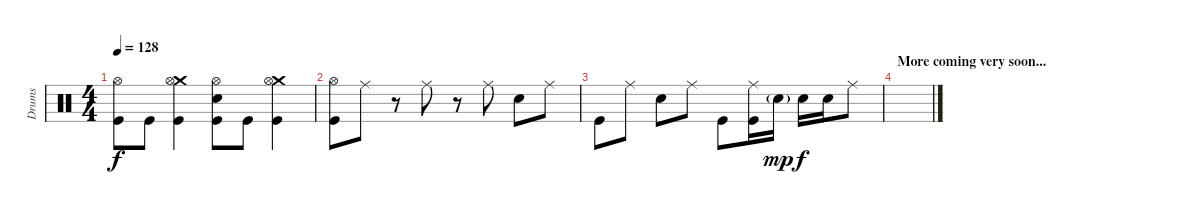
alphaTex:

\track ("Drums" "Drums") {instrument percussion}
\staff {score}
\articulation defaults
\ts (4 4)
\tempo 128
\clef neutral
\ks c
("Hi-Hat (open)" "Kick (hit)").8{dy f} "Kick (hit)".8 ("Crash medium (hit)" "Hi-Hat (open)" "Kick (hit)").4 ("Hi-Hat (open)" "Electric Snare (hit)" "Kick (hit)").8 "Kick (hit)".8 ("Crash medium (hit)" "Hi-Hat (open)" "Kick (hit)").4 |
("Hi-Hat (open)" "Kick (hit)").8 "Ride (middle)".8 r.8 "Ride (middle)".8 r.8 "Ride (middle)".8 "Electric Snare (hit)".8 "Ride (middle)".8 |
"Kick (hit)".8 "Ride (middle)".8 "Electric Snare (hit)".8 "Ride (middle)".8 "Kick (hit)".8 ("Ride (middle)" "Kick (hit)").16 "Electric Snare (hit)"{g}.16{dy mp} "Electric Snare (hit)".16{dy f} "Electric Snare (hit)".16 "Ride (middle)".8 |
\section ("" "More coming very soon...")
